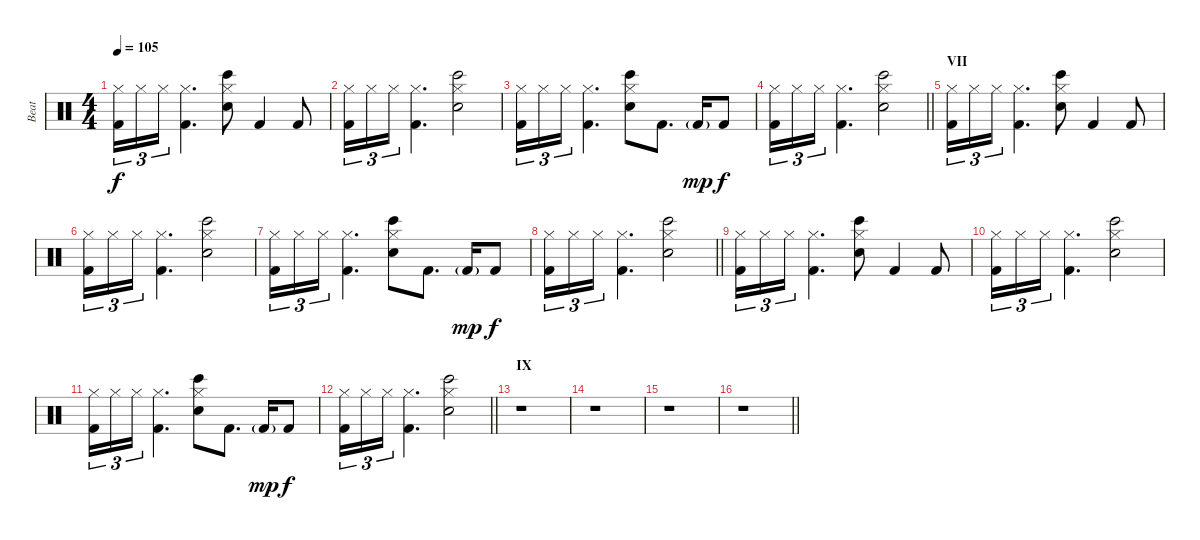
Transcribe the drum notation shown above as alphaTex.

\track ("Beat" "Beat") {instrument percussion}
\staff {score}
\articulation defaults
\ts (4 4)
\tempo 105
\clef neutral
\ks c
("Hi-Hat (closed)" "Kick (hit) 2").16{tu (3 2) dy f} "Hi-Hat (closed)".16{tu (3 2)} "Hi-Hat (closed)".16{tu (3 2)} ("Hi-Hat (closed)" "Kick (hit) 2").4{d} ("Hi-Hat (closed)" "Snare (hit) 2" "Bongo High (hit)").8 "Kick (hit) 2".4 "Kick (hit) 2".8 |
("Hi-Hat (closed)" "Kick (hit) 2").16{tu (3 2)} "Hi-Hat (closed)".16{tu (3 2)} "Hi-Hat (closed)".16{tu (3 2)} ("Hi-Hat (closed)" "Kick (hit) 2").4{d} ("Hi-Hat (closed)" "Snare (hit) 2" "Bongo High (hit)").2 |
("Hi-Hat (closed)" "Kick (hit) 2").16{tu (3 2)} "Hi-Hat (closed)".16{tu (3 2)} "Hi-Hat (closed)".16{tu (3 2)} ("Hi-Hat (closed)" "Kick (hit) 2").4{d} ("Hi-Hat (closed)" "Snare (hit) 2" "Bongo High (hit)").8 "Kick (hit) 2".8{d} "Kick (hit) 2"{g}.16{dy mp} "Kick (hit) 2".8{dy f} |
\barLineRight lightlight
("Hi-Hat (closed)" "Kick (hit) 2").16{tu (3 2)} "Hi-Hat (closed)".16{tu (3 2)} "Hi-Hat (closed)".16{tu (3 2)} ("Hi-Hat (closed)" "Kick (hit) 2").4{d} ("Hi-Hat (closed)" "Snare (hit) 2" "Bongo High (hit)").2 |
\section ("" "VII")
("Hi-Hat (closed)" "Kick (hit) 2").16{tu (3 2)} "Hi-Hat (closed)".16{tu (3 2)} "Hi-Hat (closed)".16{tu (3 2)} ("Hi-Hat (closed)" "Kick (hit) 2").4{d} ("Hi-Hat (closed)" "Snare (hit) 2" "Bongo High (hit)").8 "Kick (hit) 2".4 "Kick (hit) 2".8 |
("Hi-Hat (closed)" "Kick (hit) 2").16{tu (3 2)} "Hi-Hat (closed)".16{tu (3 2)} "Hi-Hat (closed)".16{tu (3 2)} ("Hi-Hat (closed)" "Kick (hit) 2").4{d} ("Hi-Hat (closed)" "Snare (hit) 2" "Bongo High (hit)").2 |
("Hi-Hat (closed)" "Kick (hit) 2").16{tu (3 2)} "Hi-Hat (closed)".16{tu (3 2)} "Hi-Hat (closed)".16{tu (3 2)} ("Hi-Hat (closed)" "Kick (hit) 2").4{d} ("Hi-Hat (closed)" "Snare (hit) 2" "Bongo High (hit)").8 "Kick (hit) 2".8{d} "Kick (hit) 2"{g}.16{dy mp} "Kick (hit) 2".8{dy f} |
\barLineRight lightlight
("Hi-Hat (closed)" "Kick (hit) 2").16{tu (3 2)} "Hi-Hat (closed)".16{tu (3 2)} "Hi-Hat (closed)".16{tu (3 2)} ("Hi-Hat (closed)" "Kick (hit) 2").4{d} ("Hi-Hat (closed)" "Snare (hit) 2" "Bongo High (hit)").2 |
("Hi-Hat (closed)" "Kick (hit) 2").16{tu (3 2)} "Hi-Hat (closed)".16{tu (3 2)} "Hi-Hat (closed)".16{tu (3 2)} ("Hi-Hat (closed)" "Kick (hit) 2").4{d} ("Hi-Hat (closed)" "Snare (hit) 2" "Bongo High (hit)").8 "Kick (hit) 2".4 "Kick (hit) 2".8 |
("Hi-Hat (closed)" "Kick (hit) 2").16{tu (3 2)} "Hi-Hat (closed)".16{tu (3 2)} "Hi-Hat (closed)".16{tu (3 2)} ("Hi-Hat (closed)" "Kick (hit) 2").4{d} ("Hi-Hat (closed)" "Snare (hit) 2" "Bongo High (hit)").2 |
("Hi-Hat (closed)" "Kick (hit) 2").16{tu (3 2)} "Hi-Hat (closed)".16{tu (3 2)} "Hi-Hat (closed)".16{tu (3 2)} ("Hi-Hat (closed)" "Kick (hit) 2").4{d} ("Hi-Hat (closed)" "Snare (hit) 2" "Bongo High (hit)").8 "Kick (hit) 2".8{d} "Kick (hit) 2"{g}.16{dy mp} "Kick (hit) 2".8{dy f} |
\barLineRight lightlight
("Hi-Hat (closed)" "Kick (hit) 2").16{tu (3 2)} "Hi-Hat (closed)".16{tu (3 2)} "Hi-Hat (closed)".16{tu (3 2)} ("Hi-Hat (closed)" "Kick (hit) 2").4{d} ("Hi-Hat (closed)" "Snare (hit) 2" "Bongo High (hit)").2 |
\section ("" "IX")
r.1 |
r.1 |
r.1 |
\barLineRight lightlight
r.1
